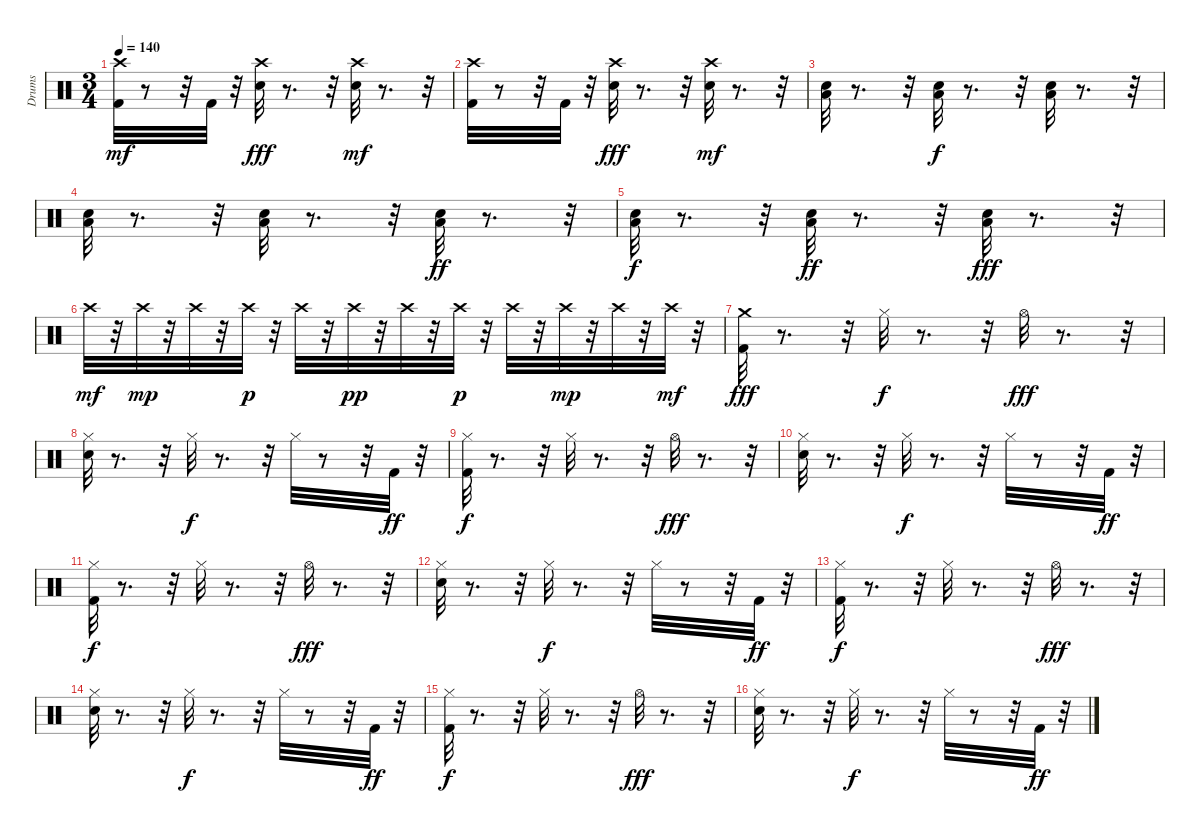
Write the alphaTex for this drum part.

\track ("Drums" "Drums") {instrument percussion}
\staff {score}
\articulation defaults
\ts (3 4)
\tempo 140
\clef neutral
\ks c
("Kick (hit) 2" "Crash high (hit)").32{dy mf} r.8 r.32 "Kick (hit) 2".32 r.32 ("Snare (hit) 2" "Crash high (hit)").32{dy fff} r.8{d} r.32 ("Snare (hit) 2" "Crash high (hit)").32{dy mf} r.8{d} r.32 |
("Kick (hit) 2" "Crash high (hit)").32 r.8 r.32 "Kick (hit) 2".32 r.32 ("Snare (hit) 2" "Crash high (hit)").32{dy fff} r.8{d} r.32 ("Snare (hit) 2" "Crash high (hit)").32{dy mf} r.8{d} r.32 |
("Snare (hit) 2" "Low Floor Tom (hit)").32 r.8{d} r.32 ("Snare (hit) 2" "Low Floor Tom (hit)").32{dy f} r.8{d} r.32 ("Snare (hit) 2" "Low Floor Tom (hit)").32 r.8{d} r.32 |
("Snare (hit) 2" "Low Floor Tom (hit)").32 r.8{d} r.32 ("Snare (hit) 2" "Low Floor Tom (hit)").32 r.8{d} r.32 ("Snare (hit) 2" "Low Floor Tom (hit)").32{dy ff} r.8{d} r.32 |
("Snare (hit) 2" "Low Floor Tom (hit)").32{dy f} r.8{d} r.32 ("Snare (hit) 2" "Low Floor Tom (hit)").32{dy ff} r.8{d} r.32 ("Snare (hit) 2" "Low Floor Tom (hit)").32{dy fff} r.8{d} r.32 |
"Crash high (hit)".32{dy mf} r.32 "Crash high (hit)".32{dy mp} r.32 "Crash high (hit)".32 r.32 "Crash high (hit)".32{dy p} r.32 "Crash high (hit)".32 r.32 "Crash high (hit)".32{dy pp} r.32 "Crash high (hit)".32 r.32 "Crash high (hit)".32{dy p} r.32 "Crash high (hit)".32 r.32 "Crash high (hit)".32{dy mp} r.32 "Crash high (hit)".32 r.32 "Crash high (hit)".32{dy mf} r.32 |
("Kick (hit) 2" "Crash medium (hit)").32{dy fff} r.8{d} r.32 "Hi-Hat (closed)".32{dy f} r.8{d} r.32 "Hi-Hat (open)".32{dy fff} r.8{d} r.32 |
("Snare (hit) 2" "Hi-Hat (closed)").32 r.8{d} r.32 "Hi-Hat (closed)".32{dy f} r.8{d} r.32 "Hi-Hat (closed)".32 r.8 r.32 "Kick (hit) 2".32{dy ff} r.32 |
("Hi-Hat (closed)" "Kick (hit) 2").32{dy f} r.8{d} r.32 "Hi-Hat (closed)".32 r.8{d} r.32 "Hi-Hat (open)".32{dy fff} r.8{d} r.32 |
("Snare (hit) 2" "Hi-Hat (closed)").32 r.8{d} r.32 "Hi-Hat (closed)".32{dy f} r.8{d} r.32 "Hi-Hat (closed)".32 r.8 r.32 "Kick (hit) 2".32{dy ff} r.32 |
("Hi-Hat (closed)" "Kick (hit) 2").32{dy f} r.8{d} r.32 "Hi-Hat (closed)".32 r.8{d} r.32 "Hi-Hat (open)".32{dy fff} r.8{d} r.32 |
("Snare (hit) 2" "Hi-Hat (closed)").32 r.8{d} r.32 "Hi-Hat (closed)".32{dy f} r.8{d} r.32 "Hi-Hat (closed)".32 r.8 r.32 "Kick (hit) 2".32{dy ff} r.32 |
("Hi-Hat (closed)" "Kick (hit) 2").32{dy f} r.8{d} r.32 "Hi-Hat (closed)".32 r.8{d} r.32 "Hi-Hat (open)".32{dy fff} r.8{d} r.32 |
("Snare (hit) 2" "Hi-Hat (closed)").32 r.8{d} r.32 "Hi-Hat (closed)".32{dy f} r.8{d} r.32 "Hi-Hat (closed)".32 r.8 r.32 "Kick (hit) 2".32{dy ff} r.32 |
("Hi-Hat (closed)" "Kick (hit) 2").32{dy f} r.8{d} r.32 "Hi-Hat (closed)".32 r.8{d} r.32 "Hi-Hat (open)".32{dy fff} r.8{d} r.32 |
("Snare (hit) 2" "Hi-Hat (closed)").32 r.8{d} r.32 "Hi-Hat (closed)".32{dy f} r.8{d} r.32 "Hi-Hat (closed)".32 r.8 r.32 "Kick (hit) 2".32{dy ff} r.32
